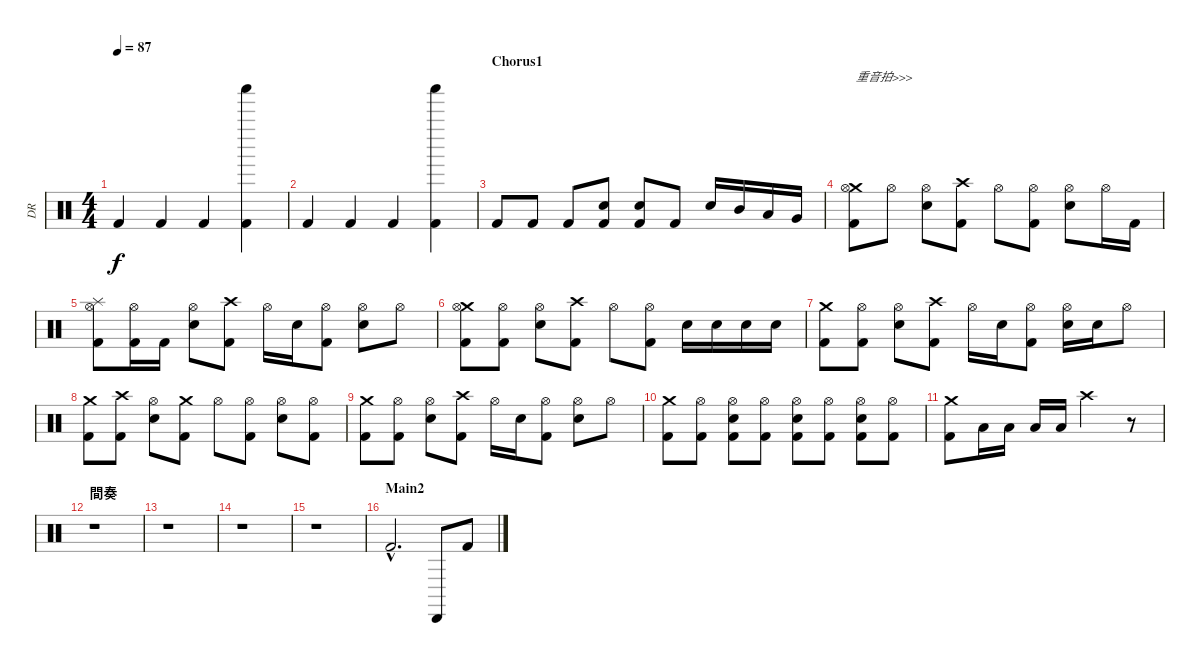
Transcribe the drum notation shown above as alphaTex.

\track ("DR" "DR") {instrument percussion}
\staff {score}
\articulation defaults
\ts (4 4)
\tempo 87
\clef neutral
\ks c "Kick (hit) 2".4{dy f} "Kick (hit) 2".4 "Kick (hit) 2".4
("Shaker (hit)" "Kick (hit) 2").4 |
"Kick (hit) 2".4 "Kick (hit) 2".4 "Kick (hit) 2".4 ("Shaker (hit)" "Kick (hit) 2").4 |
\section ("" "Chorus1")
"Kick (hit) 2".8 "Kick (hit) 2".8 "Kick (hit) 2".8 ("Electric Snare (hit)" "Kick (hit) 2").8 ("Electric Snare (hit)" "Kick (hit) 2").8 "Kick (hit) 2".8 "Electric Snare (hit)".16 "Mid Tom (hit)".16 "Low Tom (hit)".16 "Very Low Tom (hit)".16 |
("Crash medium (hit)" "Hi-Hat (open)" "Kick (hit) 2").8{txt "重音拍>>>" volume 16} "Hi-Hat (open)".8 ("Hi-Hat (open)" "Electric Snare (hit)").8 ("Crash high (hit)" "Kick (hit) 2").8 "Hi-Hat (open)".8 ("Hi-Hat (open)" "Kick (hit) 2").8 ("Hi-Hat (open)" "Electric Snare (hit)").8 "Hi-Hat (open)".16 "Kick (hit) 2".16 |
("Splash (hit)" "Hi-Hat (open)" "Kick (hit) 2").8 ("Hi-Hat (open)" "Kick (hit) 2").16 "Kick (hit) 2".16 ("Hi-Hat (open)" "Electric Snare (hit)").8 ("Crash high (hit)" "Kick (hit) 2").8 "Hi-Hat (open)".16 "Electric Snare (hit)".16 ("Hi-Hat (open)" "Kick (hit) 2").8 ("Hi-Hat (open)" "Electric Snare (hit)").8 "Hi-Hat (open)".8 |
("Crash medium (hit)" "Hi-Hat (open)" "Kick (hit) 2").8 ("Hi-Hat (open)" "Kick (hit) 2").8 ("Hi-Hat (open)" "Electric Snare (hit)").8 ("Crash high (hit)" "Kick (hit) 2").8 "Hi-Hat (open)".8 ("Hi-Hat (open)" "Kick (hit) 2").8 "Electric Snare (hit)".16 "Electric Snare (hit)".16 "Electric Snare (hit)".16 "Electric Snare (hit)".16 |
("Crash medium (hit)" "Kick (hit) 2").8 ("Hi-Hat (open)" "Kick (hit) 2").8 ("Hi-Hat (open)" "Electric Snare (hit)").8 ("Crash high (hit)" "Kick (hit) 2").8 "Hi-Hat (open)".16 "Electric Snare (hit)".16 ("Hi-Hat (open)" "Kick (hit) 2").8 ("Hi-Hat (open)" "Electric Snare (hit)").16 "Electric Snare (hit)".16 "Hi-Hat (open)".8 |
("Crash medium (hit)" "Kick (hit) 2").8 ("Crash high (hit)" "Kick (hit) 2").8 ("Hi-Hat (open)" "Electric Snare (hit)").8 ("Crash medium (hit)" "Kick (hit) 2").8 "Hi-Hat (open)".8 ("Hi-Hat (open)" "Kick (hit) 2").8 ("Hi-Hat (open)" "Electric Snare (hit)").8 ("Hi-Hat (open)" "Kick (hit) 2").8 |
("Crash medium (hit)" "Kick (hit) 2").8 ("Hi-Hat (open)" "Kick (hit) 2").8 ("Hi-Hat (open)" "Electric Snare (hit)").8 ("Crash high (hit)" "Kick (hit) 2").8 "Hi-Hat (open)".16 "Electric Snare (hit)".16 ("Hi-Hat (open)" "Kick (hit) 2").8 ("Hi-Hat (open)" "Electric Snare (hit)").8 "Hi-Hat (open)".8 |
("Crash medium (hit)" "Kick (hit) 2").8 ("Hi-Hat (open)" "Kick (hit) 2").8 ("Hi-Hat (open)" "Electric Snare (hit)" "Kick (hit) 2").8 ("Hi-Hat (open)" "Kick (hit) 2").8 ("Hi-Hat (open)" "Electric Snare (hit)" "Kick (hit) 2").8 ("Hi-Hat (open)" "Kick (hit) 2").8 ("Hi-Hat (open)" "Electric Snare (hit)" "Kick (hit) 2").8 ("Hi-Hat (open)" "Kick (hit) 2").8 |
("Crash medium (hit)" "Kick (hit) 2").8 "Low Floor Tom (hit)".16 "Low Floor Tom (hit)".16 "Low Floor Tom (hit)".16 "Low Floor Tom (hit)".16 "Crash high (hit)".2 r.8 |
\section ("" "間奏")
r.1 |
r.1 |
r.1 |
r.1 |
\section ("" "Main2")
"Kick (hit) 2"{hac}.2{d} "Cabasa (hit)".8 "Kick (hit) 2".8
